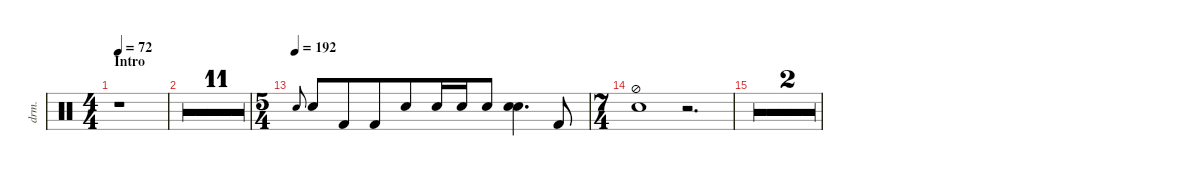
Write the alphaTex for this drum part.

\defaultSystemsLayout 4
\hideDynamics
\bracketExtendMode nobrackets
\otherSystemsTrackNameOrientation horizontal
\track ("Drumkit" "drm.") {defaultSystemsLayout 4 multiBarRest instrument percussion}
\staff
\articulation defaults
\ts (4 4)
\beaming (8 2 2 2 2)
\section ("" "Intro")
\tempo 72
\clef neutral
\ks c
r.1{dy f beam Down} |
r.1{beam Down} |
r.1{beam Down} |
r.1{beam Down} |
r.1{beam Down} |
r.1{beam Down} |
r.1{beam Down} |
r.1{beam Down} |
r.1{beam Down} |
r.1{beam Down} |
r.1{beam Down} |
r.1{beam Down} |
\ts (5 4)
\beaming (8 6 4)
\tempo (192)
"Snare (hit) 2".8{gr onbeat beam Up} "Snare (hit) 2".8{beam Up} "Kick (hit) 2".8{beam Up} "Kick (hit) 2".8{beam Up} "Snare (hit) 2".8{beam Up} "Snare (hit) 2".16{beam Up} "Snare (hit) 2".16{beam Up} "Snare (hit) 2".8{beam Up} ("Snare (hit) 2" "Snare (hit) 2").4{d beam Down} "Kick (hit) 2".8{beam Up} |
\ts (7 4)
\beaming (8 6 4 4)
("Snare (hit) 2" "Hi-Hat (half)").1{beam Down} r.2{d beam Down} |
r.1{beam Down} r.2{d beam Down} |
r.1{beam Down} r.2{d beam Down}
